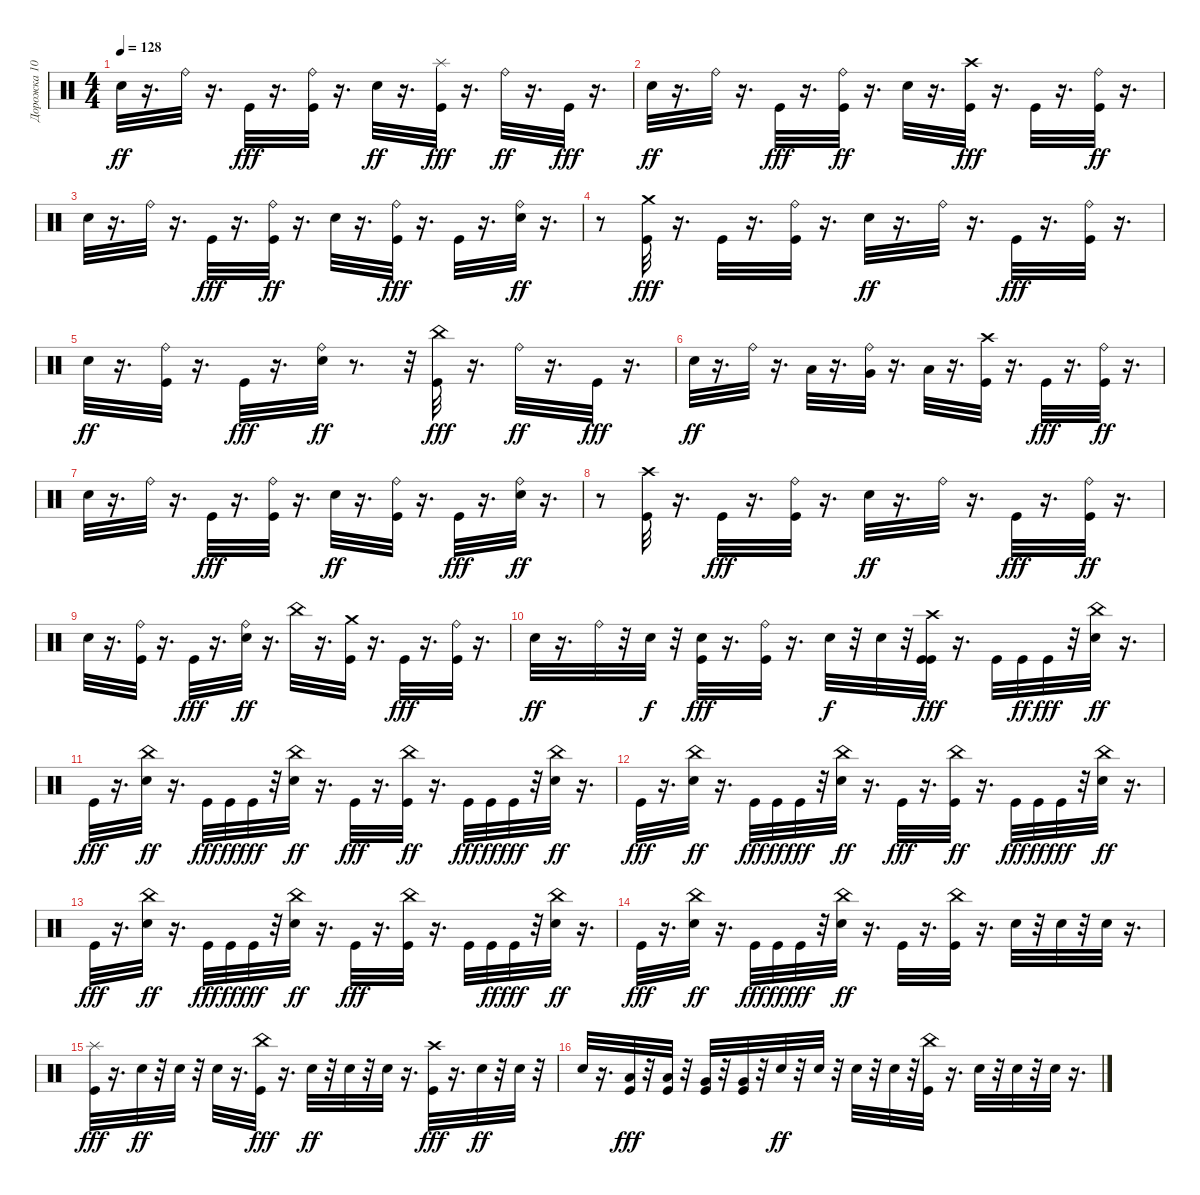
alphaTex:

\track ("Дорожка 10" "Дорожка 10") {instrument percussion}
\staff {score}
\articulation defaults
\ts (4 4)
\tempo 128
\clef neutral
\ks c "Electric Snare (hit)".32{dy ff}
r.16{d} "Ride (bell)".32 r.16{d} "Kick (hit)".32{dy fff} r.16{d} ("Ride (bell)" "Kick (hit)").32 r.16{d} "Electric Snare (hit)".32{dy ff} r.16{d} ("Splash (hit)" "Kick (hit)").32{dy fff} r.16{d} "Ride (bell)".32{dy ff} r.16{d} "Kick (hit)".32{dy fff} r.16{d} |
"Electric Snare (hit)".32{dy ff} r.16{d} "Ride (bell)".32 r.16{d} "Kick (hit)".32{dy fff} r.16{d} ("Kick (hit)" "Ride (bell)").32{dy ff} r.16{d} "Electric Snare (hit)".32 r.16{d} ("Crash high (hit)" "Kick (hit)").32{dy fff} r.16{d} "Kick (hit)".32 r.16{d} ("Kick (hit)" "Ride (bell)").32{dy ff} r.16{d} |
"Electric Snare (hit)".32 r.16{d} "Ride (bell)".32 r.16{d} "Kick (hit)".32{dy fff} r.16{d} ("Kick (hit)" "Ride (bell)").32{dy ff} r.16{d} "Electric Snare (hit)".32 r.16{d} ("Ride (bell)" "Kick (hit)").32{dy fff} r.16{d} "Kick (hit)".32 r.16{d} ("Ride (bell)" "Electric Snare (hit)").32{dy ff} r.16{d} |
r.8 ("Crash medium (hit)" "Kick (hit)").32{dy fff} r.16{d} "Kick (hit)".32 r.16{d} ("Ride (bell)" "Kick (hit)").32 r.16{d} "Electric Snare (hit)".32{dy ff} r.16{d} "Ride (bell)".32 r.16{d} "Kick (hit)".32{dy fff} r.16{d} ("Ride (bell)" "Kick (hit)").32 r.16{d} |
"Electric Snare (hit)".32{dy ff} r.16{d} ("Kick (hit)" "Ride (bell)").32 r.16{d} "Kick (hit)".32{dy fff} r.16{d} ("Ride (bell)" "Electric Snare (hit)").32{dy ff} r.8{d} r.32 ("China (hit)" "Kick (hit)").32{dy fff} r.16{d} "Ride (bell)".32{dy ff} r.16{d} "Kick (hit)".32{dy fff} r.16{d} |
"Electric Snare (hit)".32{dy ff} r.16{d} "Ride (bell)".32 r.16{d} "Low Tom (hit)".32 r.16{d} ("Ride (bell)" "Very Low Tom (hit)").32 r.16{d} "Low Floor Tom (hit)".32 r.16{d} ("Kick (hit)" "Crash high (hit)").32 r.16{d} "Kick (hit)".32{dy fff} r.16{d} ("Kick (hit)" "Ride (bell)").32{dy ff} r.16{d} |
"Electric Snare (hit)".32 r.16{d} "Ride (bell)".32 r.16{d} "Kick (hit)".32{dy fff} r.16{d} ("Ride (bell)" "Kick (hit)").32 r.16{d} "Electric Snare (hit)".32{dy ff} r.16{d} ("Kick (hit)" "Ride (bell)").32 r.16{d} "Kick (hit)".32{dy fff} r.16{d} ("Ride (bell)" "Electric Snare (hit)").32{dy ff} r.16{d} |
r.8 ("Kick (hit)" "Crash high (hit)").32 r.16{d} "Kick (hit)".32{dy fff} r.16{d} ("Ride (bell)" "Kick (hit)").32 r.16{d} "Electric Snare (hit)".32{dy ff} r.16{d} "Ride (bell)".32 r.16{d} "Kick (hit)".32{dy fff} r.16{d} ("Kick (hit)" "Ride (bell)").32{dy ff} r.16{d} |
"Electric Snare (hit)".32 r.16{d} ("Kick (hit)" "Ride (bell)").32 r.16{d} "Kick (hit)".32{dy fff} r.16{d} ("Electric Snare (hit)" "Ride (bell)").32{dy ff} r.16{d} "China (hit)".32 r.16{d} ("Kick (hit)" "Crash medium (hit)").32 r.16{d} "Kick (hit)".32{dy fff} r.16{d} ("Ride (bell)" "Kick (hit)").32 r.16{d} |
"Electric Snare (hit)".32{dy ff} r.16{d} "Ride (bell)".32 r.32 "Electric Snare (hit)".32{dy f} r.32 ("Kick (hit)" "Electric Snare (hit)").32{dy fff} r.16{d} ("Ride (bell)" "Kick (hit)").32 r.16{d} "Electric Snare (hit)".32{dy f} r.32 "Electric Snare (hit)".32 r.32 ("Kick (hit)" "Crash high (hit)" "Kick (hit)").32{dy fff} r.16{d} "Kick (hit)".32 "Kick (hit)".32{dy ff} "Kick (hit)".32{dy fff} r.32 ("Electric Snare (hit)" "China (hit)").32{dy ff} r.16{d} |
"Kick (hit)".32{dy fff} r.16{d} ("China (hit)" "Electric Snare (hit)").32{dy ff} r.16{d} "Kick (hit)".32{dy fff} "Kick (hit)".32{dy ff} "Kick (hit)".32{dy fff} r.32 ("China (hit)" "Electric Snare (hit)").32{dy ff} r.16{d} "Kick (hit)".32{dy fff} r.16{d} ("Kick (hit)" "China (hit)").32{dy ff} r.16{d} "Kick (hit)".32{dy fff} "Kick (hit)".32{dy ff} "Kick (hit)".32{dy fff} r.32 ("China (hit)" "Electric Snare (hit)").32{dy ff} r.16{d} |
"Kick (hit)".32{dy fff} r.16{d} ("China (hit)" "Electric Snare (hit)").32{dy ff} r.16{d} "Kick (hit)".32{dy fff} "Kick (hit)".32{dy ff} "Kick (hit)".32{dy fff} r.32 ("China (hit)" "Electric Snare (hit)").32{dy ff} r.16{d} "Kick (hit)".32{dy fff} r.16{d} ("Kick (hit)" "China (hit)").32{dy ff} r.16{d} "Kick (hit)".32{dy fff} "Kick (hit)".32{dy ff} "Kick (hit)".32{dy fff} r.32 ("Electric Snare (hit)" "China (hit)").32{dy ff} r.16{d} |
"Kick (hit)".32{dy fff} r.16{d} ("Electric Snare (hit)" "China (hit)").32{dy ff} r.16{d} "Kick (hit)".32{dy fff} "Kick (hit)".32{dy ff} "Kick (hit)".32{dy fff} r.32 ("Electric Snare (hit)" "China (hit)").32{dy ff} r.16{d} "Kick (hit)".32{dy fff} r.16{d} ("China (hit)" "Kick (hit)").32 r.16{d} "Kick (hit)".32 "Kick (hit)".32{dy ff} "Kick (hit)".32{dy fff} r.32 ("Electric Snare (hit)" "China (hit)").32{dy ff} r.16{d} |
"Kick (hit)".32{dy fff} r.16{d} ("China (hit)" "Electric Snare (hit)").32{dy ff} r.16{d} "Kick (hit)".32{dy fff} "Kick (hit)".32{dy ff} "Kick (hit)".32{dy fff} r.32 ("Electric Snare (hit)" "China (hit)").32{dy ff} r.16{d} "Kick (hit)".32 r.16{d} ("Kick (hit)" "China (hit)").32 r.16{d} "Electric Snare (hit)".32 r.32 "Electric Snare (hit)".32 r.32 "Electric Snare (hit)".32 r.16{d} |
("Splash (hit)" "Kick (hit)").32{dy fff} r.16{d} "Electric Snare (hit)".32{dy ff} r.32 "Electric Snare (hit)".32 r.32 "Electric Snare (hit)".32 r.16{d} ("China (hit)" "Kick (hit)").32{dy fff} r.16{d} "Electric Snare (hit)".32{dy ff} r.32 "Electric Snare (hit)".32 r.32 "Electric Snare (hit)".32 r.16{d} ("Crash high (hit)" "Kick (hit)").32{dy fff} r.16{d} "Electric Snare (hit)".32{dy ff} r.32 "Electric Snare (hit)".32 r.32 |
"Electric Snare (hit)".32 r.16{d} ("Low Tom (hit)" "Kick (hit)").32{dy fff} r.32 ("Low Tom (hit)" "Kick (hit)").32 r.32 ("Very Low Tom (hit)" "Kick (hit)").32 r.32 ("Very Low Tom (hit)" "Kick (hit)").32 r.32 "Electric Snare (hit)".32{dy ff} r.32 "Electric Snare (hit)".32 r.32 "Electric Snare (hit)".32 r.32 "Electric Snare (hit)".32 r.32 ("Kick (hit)" "China (hit)").32 r.16{d} "Electric Snare (hit)".32 r.32 "Electric Snare (hit)".32 r.32 "Electric Snare (hit)".32 r.16{d}
